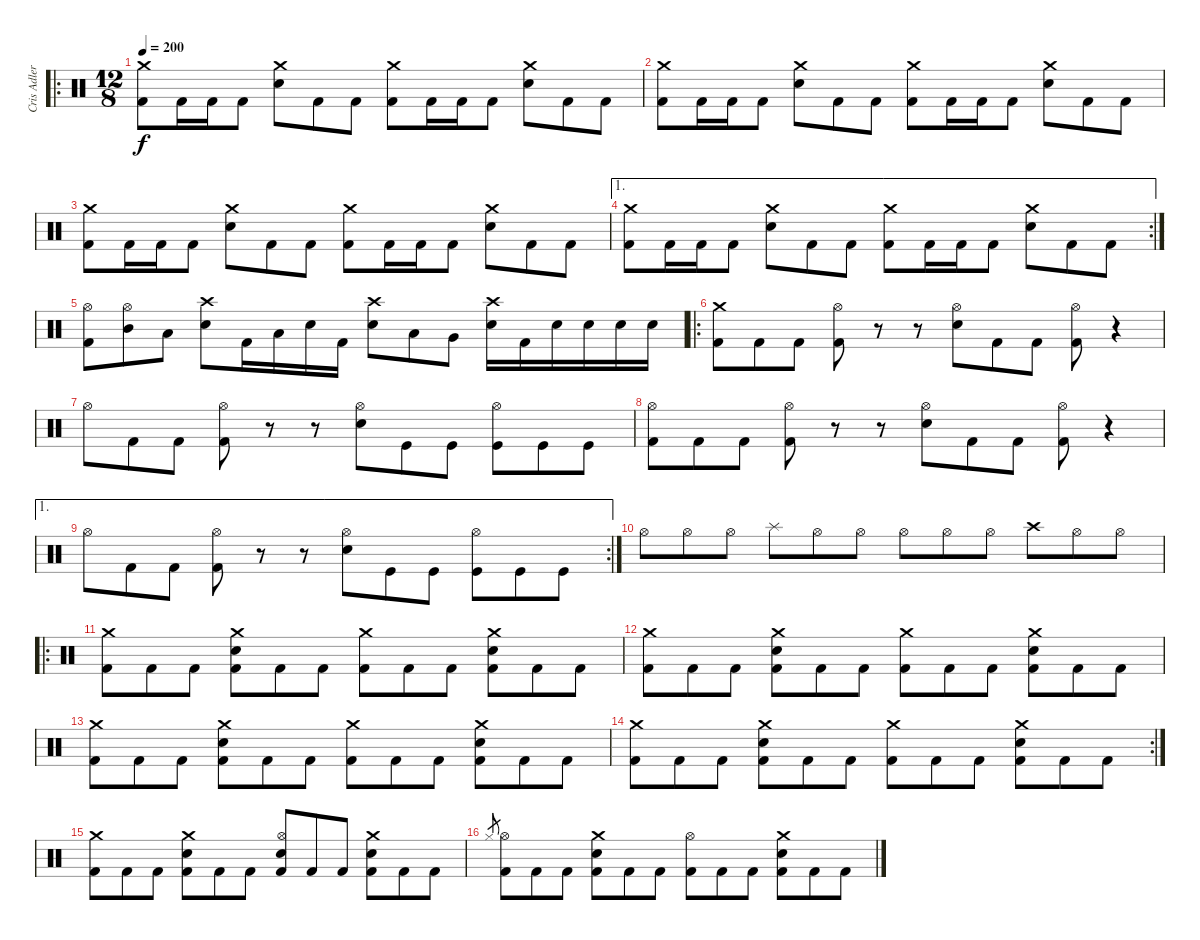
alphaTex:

\track ("Cris Adler" "Cris Adler") {instrument percussion}
\staff {score}
\articulation defaults
\ro
\ts (12 8)
\tempo 200
\clef neutral
\ks c
("Crash medium (hit)" "Kick (hit) 2").8{dy f} "Kick (hit) 2".16 "Kick (hit) 2".16 "Kick (hit) 2".8 ("Crash medium (hit)" "Electric Snare (hit)").8 "Kick (hit) 2".8 "Kick (hit) 2".8 ("Crash medium (hit)" "Kick (hit) 2").8 "Kick (hit) 2".16 "Kick (hit) 2".16 "Kick (hit) 2".8 ("Crash medium (hit)" "Electric Snare (hit)").8 "Kick (hit) 2".8 "Kick (hit) 2".8 |
("Crash medium (hit)" "Kick (hit) 2").8 "Kick (hit) 2".16 "Kick (hit) 2".16 "Kick (hit) 2".8 ("Crash medium (hit)" "Electric Snare (hit)").8 "Kick (hit) 2".8 "Kick (hit) 2".8 ("Crash medium (hit)" "Kick (hit) 2").8 "Kick (hit) 2".16 "Kick (hit) 2".16 "Kick (hit) 2".8 ("Crash medium (hit)" "Electric Snare (hit)").8 "Kick (hit) 2".8 "Kick (hit) 2".8 |
("Crash medium (hit)" "Kick (hit) 2").8 "Kick (hit) 2".16 "Kick (hit) 2".16 "Kick (hit) 2".8 ("Crash medium (hit)" "Electric Snare (hit)").8 "Kick (hit) 2".8 "Kick (hit) 2".8 ("Crash medium (hit)" "Kick (hit) 2").8 "Kick (hit) 2".16 "Kick (hit) 2".16 "Kick (hit) 2".8 ("Crash medium (hit)" "Electric Snare (hit)").8 "Kick (hit) 2".8 "Kick (hit) 2".8 |
\ae 1
\rc 2
("Crash medium (hit)" "Kick (hit) 2").8 "Kick (hit) 2".16 "Kick (hit) 2".16 "Kick (hit) 2".8 ("Crash medium (hit)" "Electric Snare (hit)").8 "Kick (hit) 2".8 "Kick (hit) 2".8 ("Crash medium (hit)" "Kick (hit) 2").8 "Kick (hit) 2".16 "Kick (hit) 2".16 "Kick (hit) 2".8 ("Crash medium (hit)" "Electric Snare (hit)").8 "Kick (hit) 2".8 "Kick (hit) 2".8 |
("Hi-Hat (open)" "Kick (hit) 2").8 ("Hi-Hat (open)" "Mid Tom (hit)").8 "Low Tom (hit)".8 ("Crash high (hit)" "Electric Snare (hit)").8 "Kick (hit) 2".16 "Low Tom (hit)".16 "Electric Snare (hit)".16 "Kick (hit) 2".16 ("Crash high (hit)" "Electric Snare (hit)").8 "Low Tom (hit)".8 "Very Low Tom (hit)".8 ("Crash high (hit)" "Electric Snare (hit)").16 "Kick (hit) 2".16 "Electric Snare (hit)".16 "Electric Snare (hit)".16 "Electric Snare (hit)".16 "Electric Snare (hit)".16 |
\ro
("Crash medium (hit)" "Kick (hit) 2").8 "Kick (hit) 2".8 "Kick (hit) 2".8 ("Hi-Hat (open)" "Kick (hit) 2").8 r.8 r.8 ("Hi-Hat (open)" "Electric Snare (hit)").8 "Kick (hit) 2".8 "Kick (hit) 2".8 ("Hi-Hat (open)" "Kick (hit) 2").8 r.4 |
"Hi-Hat (open)".8 "Kick (hit) 2".8 "Kick (hit) 2".8 ("Hi-Hat (open)" "Kick (hit) 2").8 r.8 r.8 ("Hi-Hat (open)" "Electric Snare (hit)").8 "Kick (hit)".8 "Kick (hit)".8 ("Hi-Hat (open)" "Kick (hit)").8 "Kick (hit)".8 "Kick (hit)".8 |
("Hi-Hat (open)" "Kick (hit) 2").8 "Kick (hit) 2".8 "Kick (hit) 2".8 ("Hi-Hat (open)" "Kick (hit) 2").8 r.8 r.8 ("Hi-Hat (open)" "Electric Snare (hit)").8 "Kick (hit) 2".8 "Kick (hit) 2".8 ("Hi-Hat (open)" "Kick (hit) 2").8 r.4 |
\ae 1
\rc 2 "Hi-Hat (open)".8 "Kick (hit) 2".8 "Kick (hit) 2".8
("Hi-Hat (open)" "Kick (hit) 2").8 r.8 r.8 ("Hi-Hat (open)" "Electric Snare (hit)").8 "Kick (hit)".8 "Kick (hit)".8 ("Hi-Hat (open)" "Kick (hit)").8 "Kick (hit)".8 "Kick (hit)".8 |
"Hi-Hat (open)".8 "Hi-Hat (open)".8 "Hi-Hat (open)".8 "Splash (hit)".8 "Hi-Hat (open)".8 "Hi-Hat (open)".8 "Hi-Hat (open)".8 "Hi-Hat (open)".8 "Hi-Hat (open)".8 "Crash high (hit)".8 "Hi-Hat (open)".8 "Hi-Hat (open)".8 |
\ro
("Crash medium (hit)" "Kick (hit) 2").8 "Kick (hit) 2".8 "Kick (hit) 2".8 ("Crash medium (hit)" "Electric Snare (hit)" "Kick (hit) 2").8 "Kick (hit) 2".8 "Kick (hit) 2".8 ("Crash medium (hit)" "Kick (hit) 2").8 "Kick (hit) 2".8 "Kick (hit) 2".8 ("Crash medium (hit)" "Electric Snare (hit)" "Kick (hit) 2").8 "Kick (hit) 2".8 "Kick (hit) 2".8 |
("Crash medium (hit)" "Kick (hit) 2").8 "Kick (hit) 2".8 "Kick (hit) 2".8 ("Crash medium (hit)" "Kick (hit) 2" "Electric Snare (hit)").8 "Kick (hit) 2".8 "Kick (hit) 2".8 ("Crash medium (hit)" "Kick (hit) 2").8 "Kick (hit) 2".8 "Kick (hit) 2".8 ("Crash medium (hit)" "Kick (hit) 2" "Electric Snare (hit)").8 "Kick (hit) 2".8 "Kick (hit) 2".8 |
("Crash medium (hit)" "Kick (hit) 2").8 "Kick (hit) 2".8 "Kick (hit) 2".8 ("Crash medium (hit)" "Electric Snare (hit)" "Kick (hit) 2").8 "Kick (hit) 2".8 "Kick (hit) 2".8 ("Crash medium (hit)" "Kick (hit) 2").8 "Kick (hit) 2".8 "Kick (hit) 2".8 ("Crash medium (hit)" "Electric Snare (hit)" "Kick (hit) 2").8 "Kick (hit) 2".8 "Kick (hit) 2".8 |
\rc 2
("Crash medium (hit)" "Kick (hit) 2").8 "Kick (hit) 2".8 "Kick (hit) 2".8 ("Crash medium (hit)" "Kick (hit) 2" "Electric Snare (hit)").8 "Kick (hit) 2".8 "Kick (hit) 2".8 ("Crash medium (hit)" "Kick (hit) 2").8 "Kick (hit) 2".8 "Kick (hit) 2".8 ("Crash medium (hit)" "Kick (hit) 2" "Electric Snare (hit)").8 "Kick (hit) 2".8 "Kick (hit) 2".8 |
("Crash medium (hit)" "Kick (hit) 2").8 "Kick (hit) 2".8 "Kick (hit) 2".8 ("Crash medium (hit)" "Electric Snare (hit)" "Kick (hit) 2").8 "Kick (hit) 2".8 "Kick (hit) 2".8 ("Hi-Hat (open)" "Snare (hit)" "Kick (hit) 2").8 "Kick (hit) 2".8 "Kick (hit) 2".8 ("Crash medium (hit)" "Electric Snare (hit)" "Kick (hit) 2").8 "Kick (hit) 2".8 "Kick (hit) 2".8 |
"Hi-Hat (closed)".8{gr} ("Hi-Hat (open)" "Kick (hit) 2").8 "Kick (hit) 2".8 "Kick (hit) 2".8 ("Crash medium (hit)" "Kick (hit) 2" "Electric Snare (hit)").8 "Kick (hit) 2".8 "Kick (hit) 2".8 ("Hi-Hat (open)" "Kick (hit) 2").8 "Kick (hit) 2".8 "Kick (hit) 2".8 ("Crash medium (hit)" "Kick (hit) 2" "Electric Snare (hit)").8 "Kick (hit) 2".8 "Kick (hit) 2".8
